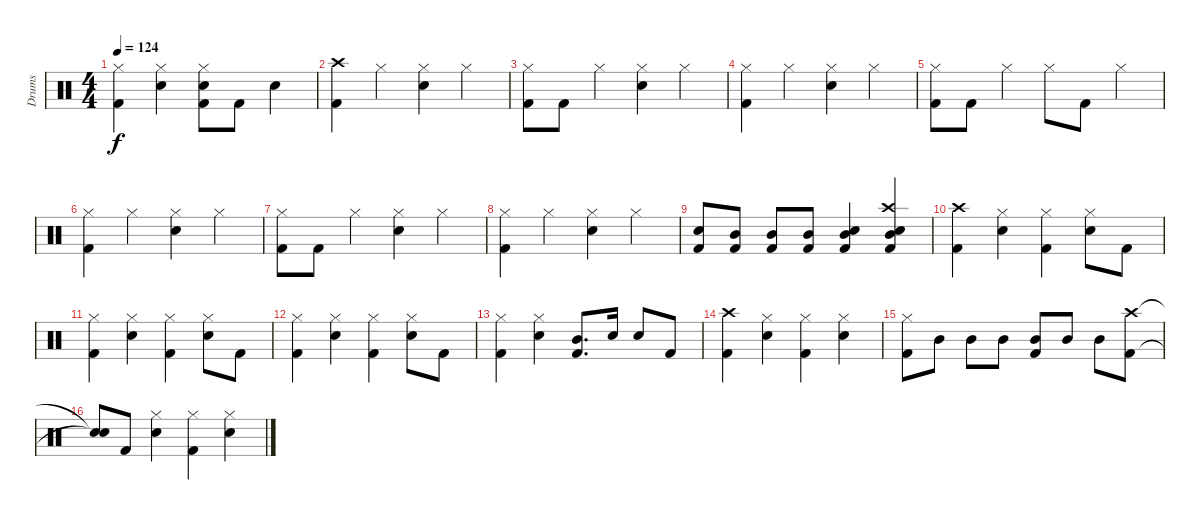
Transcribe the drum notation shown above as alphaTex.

\track ("Drums" "Drums") {instrument percussion}
\staff {score}
\articulation defaults
\ts (4 4)
\tempo 124
\clef neutral
\ks c
("Hi-Hat (closed)" "Kick (hit) 2").4{dy f} ("Hi-Hat (closed)" "Snare (hit) 2").4 ("Hi-Hat (closed)" "Snare (hit) 2" "Kick (hit) 2").8 "Kick (hit) 2".8 "Snare (hit) 2".4 |
("Crash high (hit)" "Kick (hit) 2").4 "Hi-Hat (closed)".4 ("Hi-Hat (closed)" "Snare (hit) 2").4 "Hi-Hat (closed)".4 |
("Hi-Hat (closed)" "Kick (hit) 2").8 "Kick (hit) 2".8 "Hi-Hat (closed)".4 ("Hi-Hat (closed)" "Snare (hit) 2").4 "Hi-Hat (closed)".4 |
("Hi-Hat (closed)" "Kick (hit) 2").4 "Hi-Hat (closed)".4 ("Hi-Hat (closed)" "Snare (hit) 2").4 "Hi-Hat (closed)".4 |
("Hi-Hat (closed)" "Kick (hit) 2").8 "Kick (hit) 2".8 "Hi-Hat (closed)".4 "Hi-Hat (closed)".8 "Kick (hit) 2".8 "Hi-Hat (closed)".4 |
("Hi-Hat (closed)" "Kick (hit) 2").4 "Hi-Hat (closed)".4 ("Hi-Hat (closed)" "Snare (hit) 2").4 "Hi-Hat (closed)".4 |
("Hi-Hat (closed)" "Kick (hit) 2").8 "Kick (hit) 2".8 "Hi-Hat (closed)".4 ("Hi-Hat (closed)" "Snare (hit) 2").4 "Hi-Hat (closed)".4 |
("Hi-Hat (closed)" "Kick (hit) 2").4 "Hi-Hat (closed)".4 ("Hi-Hat (closed)" "Snare (hit) 2").4 "Hi-Hat (closed)".4 |
("Snare (hit) 2" "Kick (hit) 2").8 ("Mid Tom (hit)" "Kick (hit) 2").8 ("Mid Tom (hit)" "Kick (hit) 2").8 ("Mid Tom (hit)" "Kick (hit) 2").8 ("Mid Tom (hit)" "Snare (hit) 2" "Kick (hit) 2").4 ("Crash high (hit)" "Mid Tom (hit)" "Snare (hit) 2" "Kick (hit) 2").4 |
("Crash high (hit)" "Kick (hit) 2").4 ("Hi-Hat (closed)" "Snare (hit) 2").4 ("Hi-Hat (closed)" "Kick (hit) 2").4 ("Hi-Hat (closed)" "Snare (hit) 2").8 "Kick (hit) 2".8 |
("Hi-Hat (closed)" "Kick (hit) 2").4 ("Hi-Hat (closed)" "Snare (hit) 2").4 ("Hi-Hat (closed)" "Kick (hit) 2").4 ("Hi-Hat (closed)" "Snare (hit) 2").8 "Kick (hit) 2".8 |
("Hi-Hat (closed)" "Kick (hit) 2").4 ("Hi-Hat (closed)" "Snare (hit) 2").4 ("Hi-Hat (closed)" "Kick (hit) 2").4 ("Hi-Hat (closed)" "Snare (hit) 2").8 "Kick (hit) 2".8 |
("Hi-Hat (closed)" "Kick (hit) 2").4 ("Hi-Hat (closed)" "Snare (hit) 2").4 ("Mid Tom (hit)" "Kick (hit) 2").8{d} "Snare (hit) 2".16 "Snare (hit) 2".8 "Kick (hit) 2".8 |
("Crash high (hit)" "Kick (hit) 2").4 ("Hi-Hat (closed)" "Snare (hit) 2").4 ("Hi-Hat (closed)" "Kick (hit) 2").4 ("Hi-Hat (closed)" "Snare (hit) 2").4 |
("Hi-Hat (closed)" "Kick (hit) 2").8 "Mid Tom (hit)".8 "Mid Tom (hit)".8 "Mid Tom (hit)".8 ("Mid Tom (hit)" "Kick (hit) 2").8 "Mid Tom (hit)".8 "Mid Tom (hit)".8 ("Crash high (hit)" "Kick (hit) 2").8 |
("Snare (hit)"{t} "Snare (hit)"{t}).8 "Kick (hit) 2".8 ("Hi-Hat (closed)" "Snare (hit) 2").4 ("Hi-Hat (closed)" "Kick (hit) 2").4 ("Hi-Hat (closed)" "Snare (hit) 2").4
